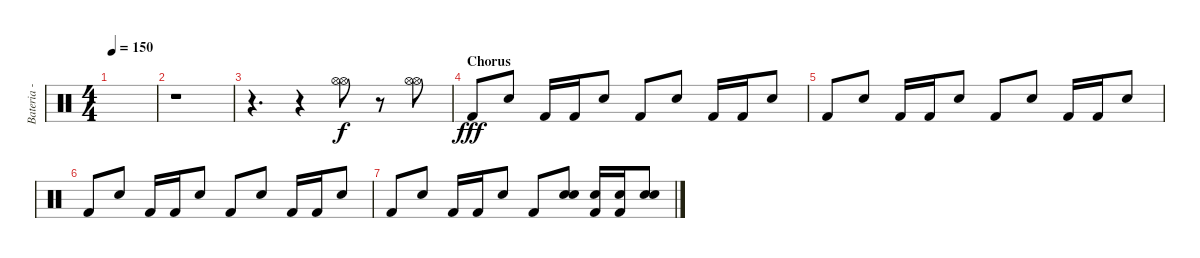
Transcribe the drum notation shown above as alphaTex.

\track ("Bateria - Larzon" "Bateria - ") {instrument percussion}
\staff {score}
\articulation defaults
\ts (4 4)
\tempo 150
\clef neutral
\ks c
|
r.1 |
r.4{d} r.4 ("Hi-Hat (open)" "Hi-Hat (open)").8{dy f} r.8 ("Hi-Hat (open)" "Hi-Hat (open)").8 |
\section ("" "Chorus")
"Kick (hit) 2".8{dy fff} "Electric Snare (hit)".8 "Kick (hit) 2".16 "Kick (hit) 2".16 "Electric Snare (hit)".8 "Kick (hit) 2".8 "Electric Snare (hit)".8 "Kick (hit) 2".16 "Kick (hit) 2".16 "Electric Snare (hit)".8 |
"Kick (hit) 2".8 "Electric Snare (hit)".8 "Kick (hit) 2".16 "Kick (hit) 2".16 "Electric Snare (hit)".8 "Kick (hit) 2".8 "Electric Snare (hit)".8 "Kick (hit) 2".16 "Kick (hit) 2".16 "Electric Snare (hit)".8 |
"Kick (hit) 2".8 "Electric Snare (hit)".8 "Kick (hit) 2".16 "Kick (hit) 2".16 "Electric Snare (hit)".8 "Kick (hit) 2".8 "Electric Snare (hit)".8 "Kick (hit) 2".16 "Kick (hit) 2".16 "Electric Snare (hit)".8 |
"Kick (hit) 2".8 "Electric Snare (hit)".8 "Kick (hit) 2".16 "Kick (hit) 2".16 "Electric Snare (hit)".8 "Kick (hit) 2".8 ("Electric Snare (hit)" "Electric Snare (hit)").8 ("Kick (hit) 2" "Electric Snare (hit)").16 ("Kick (hit) 2" "Electric Snare (hit)").16 ("Electric Snare (hit)" "Electric Snare (hit)").8
